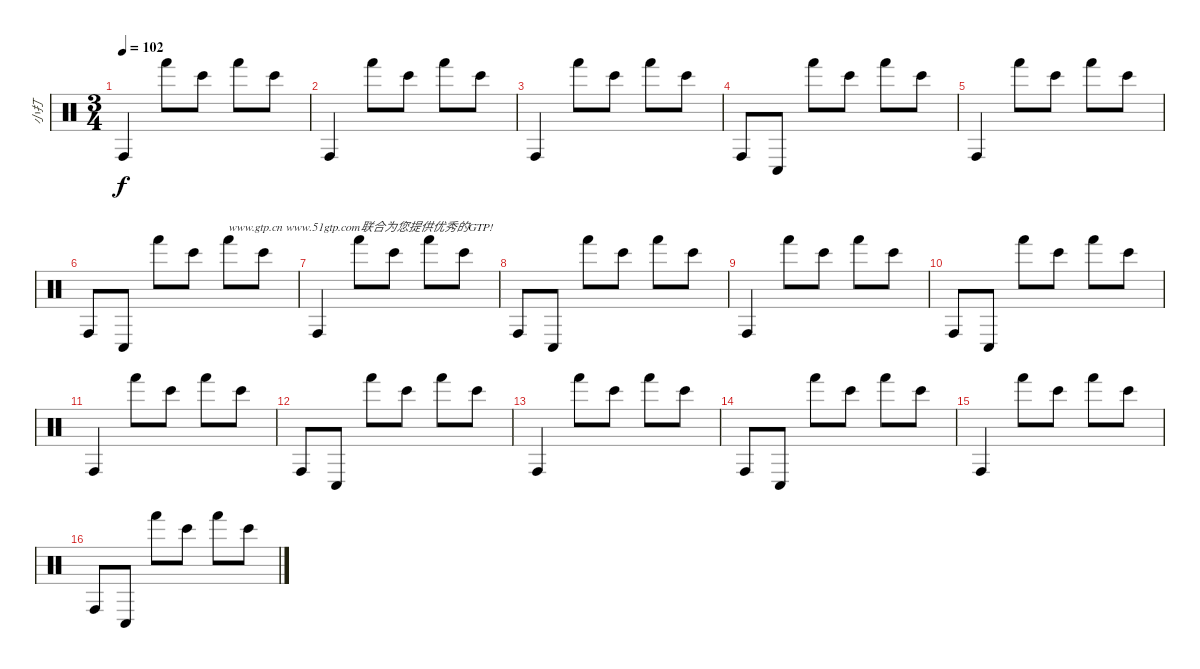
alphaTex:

\track ("小打" "小打") {instrument percussion}
\staff {score}
\articulation defaults
\ts (3 4)
\tempo 102
\clef neutral
\ks c "Conga high (hit)".4{dy f} "Hand (hit)".8 "Bongo High (hit)".8 "Hand (hit)".8 "Bongo High (hit)".8
|
"Conga high (hit)".4 "Hand (hit)".8 "Bongo High (hit)".8 "Hand (hit)".8 "Bongo High (hit)".8 |
"Conga high (hit)".4 "Hand (hit)".8 "Bongo High (hit)".8 "Hand (hit)".8 "Bongo High (hit)".8 |
"Conga high (hit)".8 "Conga low (hit)".8 "Hand (hit)".8 "Bongo High (hit)".8 "Hand (hit)".8 "Bongo High (hit)".8 |
"Conga high (hit)".4 "Hand (hit)".8 "Bongo High (hit)".8 "Hand (hit)".8 "Bongo High (hit)".8 |
"Conga high (hit)".8 "Conga low (hit)".8 "Hand (hit)".8 "Bongo High (hit)".8 "Hand (hit)".8{txt "www.gtp.cn www.51gtp.com联合为您提供优秀的GTP!"} "Bongo High (hit)".8 |
"Conga high (hit)".4 "Hand (hit)".8 "Bongo High (hit)".8 "Hand (hit)".8 "Bongo High (hit)".8 |
"Conga high (hit)".8 "Conga low (hit)".8 "Hand (hit)".8 "Bongo High (hit)".8 "Hand (hit)".8 "Bongo High (hit)".8 |
"Conga high (hit)".4 "Hand (hit)".8 "Bongo High (hit)".8 "Hand (hit)".8 "Bongo High (hit)".8 |
"Conga high (hit)".8 "Conga low (hit)".8 "Hand (hit)".8 "Bongo High (hit)".8 "Hand (hit)".8 "Bongo High (hit)".8 |
"Conga high (hit)".4 "Hand (hit)".8 "Bongo High (hit)".8 "Hand (hit)".8 "Bongo High (hit)".8 |
"Conga high (hit)".8 "Conga low (hit)".8 "Hand (hit)".8 "Bongo High (hit)".8 "Hand (hit)".8 "Bongo High (hit)".8 |
"Conga high (hit)".4 "Hand (hit)".8 "Bongo High (hit)".8 "Hand (hit)".8 "Bongo High (hit)".8 |
"Conga high (hit)".8 "Conga low (hit)".8 "Hand (hit)".8 "Bongo High (hit)".8 "Hand (hit)".8 "Bongo High (hit)".8 |
"Conga high (hit)".4 "Hand (hit)".8 "Bongo High (hit)".8 "Hand (hit)".8 "Bongo High (hit)".8 |
"Conga high (hit)".8 "Conga low (hit)".8 "Hand (hit)".8 "Bongo High (hit)".8 "Hand (hit)".8 "Bongo High (hit)".8
